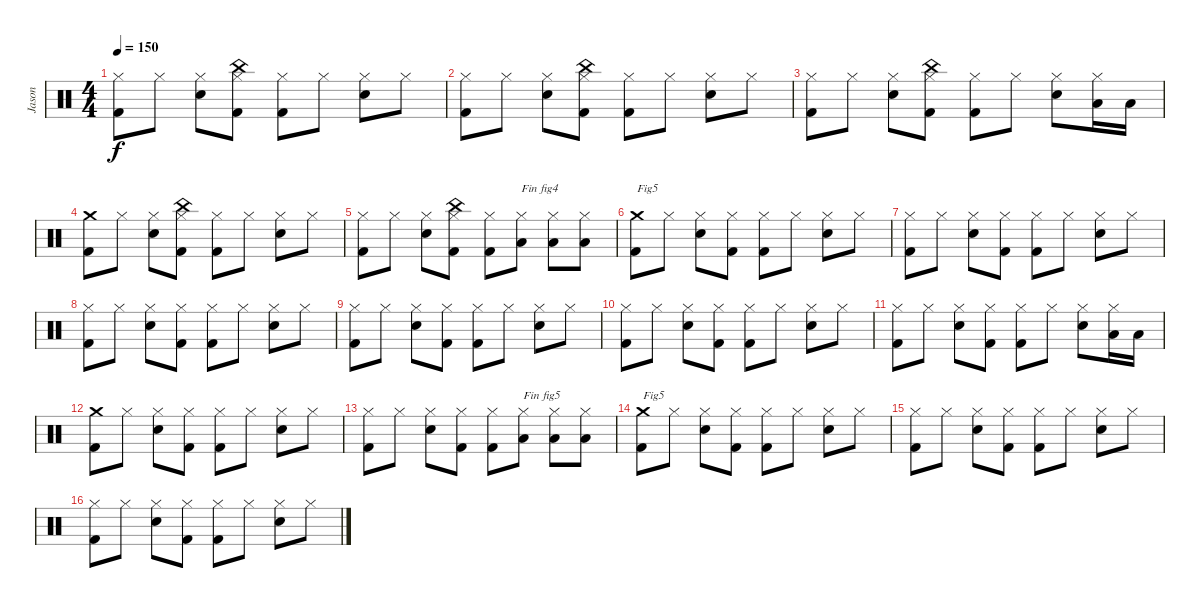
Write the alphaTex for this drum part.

\track ("Jason" "Jason") {instrument percussion}
\staff {score}
\articulation defaults
\ts (4 4)
\tempo 150
\clef neutral
\ks c
("Kick (hit) 2" "Hi-Hat (closed)").8{dy f} "Hi-Hat (closed)".8 ("Electric Snare (hit)" "Hi-Hat (closed)").8 ("Kick (hit) 2" "China (hit)" "Hi-Hat (closed)").8 ("Kick (hit) 2" "Hi-Hat (closed)").8 "Hi-Hat (closed)".8 ("Electric Snare (hit)" "Hi-Hat (closed)").8 "Hi-Hat (closed)".8 |
("Kick (hit) 2" "Hi-Hat (closed)").8 "Hi-Hat (closed)".8 ("Electric Snare (hit)" "Hi-Hat (closed)").8 ("Kick (hit) 2" "China (hit)" "Hi-Hat (closed)").8 ("Kick (hit) 2" "Hi-Hat (closed)").8 "Hi-Hat (closed)".8 ("Electric Snare (hit)" "Hi-Hat (closed)").8 "Hi-Hat (closed)".8 |
("Kick (hit) 2" "Hi-Hat (closed)").8 "Hi-Hat (closed)".8 ("Electric Snare (hit)" "Hi-Hat (closed)").8 ("Kick (hit) 2" "China (hit)" "Hi-Hat (closed)").8 ("Kick (hit) 2" "Hi-Hat (closed)").8 "Hi-Hat (closed)".8 ("Electric Snare (hit)" "Hi-Hat (closed)").8 ("Low Tom (hit)" "Hi-Hat (closed)").16 "Low Tom (hit)".16 |
("Kick (hit) 2" "Crash medium (hit)").8 "Hi-Hat (closed)".8 ("Electric Snare (hit)" "Hi-Hat (closed)").8 ("Kick (hit) 2" "China (hit)" "Hi-Hat (closed)").8 ("Kick (hit) 2" "Hi-Hat (closed)").8 "Hi-Hat (closed)".8 ("Electric Snare (hit)" "Hi-Hat (closed)").8 "Hi-Hat (closed)".8 |
("Kick (hit) 2" "Hi-Hat (closed)").8 "Hi-Hat (closed)".8 ("Electric Snare (hit)" "Hi-Hat (closed)").8 ("Kick (hit) 2" "China (hit)" "Hi-Hat (closed)").8 ("Kick (hit) 2" "Hi-Hat (closed)").8 ("Low Tom (hit)" "Hi-Hat (closed)").8{txt "Fin fig4"} ("Low Tom (hit)" "Hi-Hat (closed)").8 ("Low Tom (hit)" "Hi-Hat (closed)").8 |
("Kick (hit) 2" "Crash medium (hit)").8{txt "Fig5"} "Hi-Hat (closed)".8 ("Electric Snare (hit)" "Hi-Hat (closed)").8 ("Kick (hit) 2" "Hi-Hat (closed)").8 ("Kick (hit) 2" "Hi-Hat (closed)").8 "Hi-Hat (closed)".8 ("Electric Snare (hit)" "Hi-Hat (closed)").8 "Hi-Hat (closed)".8 |
("Kick (hit) 2" "Hi-Hat (closed)").8 "Hi-Hat (closed)".8 ("Electric Snare (hit)" "Hi-Hat (closed)").8 ("Kick (hit) 2" "Hi-Hat (closed)").8 ("Kick (hit) 2" "Hi-Hat (closed)").8 "Hi-Hat (closed)".8 ("Electric Snare (hit)" "Hi-Hat (closed)").8 "Hi-Hat (closed)".8 |
("Kick (hit) 2" "Hi-Hat (closed)").8 "Hi-Hat (closed)".8 ("Electric Snare (hit)" "Hi-Hat (closed)").8 ("Kick (hit) 2" "Hi-Hat (closed)").8 ("Kick (hit) 2" "Hi-Hat (closed)").8 "Hi-Hat (closed)".8 ("Electric Snare (hit)" "Hi-Hat (closed)").8 "Hi-Hat (closed)".8 |
("Kick (hit) 2" "Hi-Hat (closed)").8 "Hi-Hat (closed)".8 ("Electric Snare (hit)" "Hi-Hat (closed)").8 ("Kick (hit) 2" "Hi-Hat (closed)").8 ("Kick (hit) 2" "Hi-Hat (closed)").8 "Hi-Hat (closed)".8 ("Electric Snare (hit)" "Hi-Hat (closed)").8 "Hi-Hat (closed)".8 |
("Kick (hit) 2" "Hi-Hat (closed)").8 "Hi-Hat (closed)".8 ("Electric Snare (hit)" "Hi-Hat (closed)").8 ("Kick (hit) 2" "Hi-Hat (closed)").8 ("Kick (hit) 2" "Hi-Hat (closed)").8 "Hi-Hat (closed)".8 ("Electric Snare (hit)" "Hi-Hat (closed)").8 "Hi-Hat (closed)".8 |
("Kick (hit) 2" "Hi-Hat (closed)").8 "Hi-Hat (closed)".8 ("Electric Snare (hit)" "Hi-Hat (closed)").8 ("Kick (hit) 2" "Hi-Hat (closed)").8 ("Kick (hit) 2" "Hi-Hat (closed)").8 "Hi-Hat (closed)".8 ("Electric Snare (hit)" "Hi-Hat (closed)").8 ("Low Tom (hit)" "Hi-Hat (closed)").16 "Low Tom (hit)".16 |
("Kick (hit) 2" "Crash medium (hit)").8 "Hi-Hat (closed)".8 ("Electric Snare (hit)" "Hi-Hat (closed)").8 ("Kick (hit) 2" "Hi-Hat (closed)").8 ("Kick (hit) 2" "Hi-Hat (closed)").8 "Hi-Hat (closed)".8 ("Electric Snare (hit)" "Hi-Hat (closed)").8 "Hi-Hat (closed)".8 |
("Kick (hit) 2" "Hi-Hat (closed)").8 "Hi-Hat (closed)".8 ("Electric Snare (hit)" "Hi-Hat (closed)").8 ("Kick (hit) 2" "Hi-Hat (closed)").8 ("Kick (hit) 2" "Hi-Hat (closed)").8 ("Low Tom (hit)" "Hi-Hat (closed)").8{txt "Fin fig5"} ("Low Tom (hit)" "Hi-Hat (closed)").8 ("Low Tom (hit)" "Hi-Hat (closed)").8 |
("Kick (hit) 2" "Crash medium (hit)").8{txt "Fig5"} "Hi-Hat (closed)".8 ("Electric Snare (hit)" "Hi-Hat (closed)").8 ("Kick (hit) 2" "Hi-Hat (closed)").8 ("Kick (hit) 2" "Hi-Hat (closed)").8 "Hi-Hat (closed)".8 ("Electric Snare (hit)" "Hi-Hat (closed)").8 "Hi-Hat (closed)".8 |
("Kick (hit) 2" "Hi-Hat (closed)").8 "Hi-Hat (closed)".8 ("Electric Snare (hit)" "Hi-Hat (closed)").8 ("Kick (hit) 2" "Hi-Hat (closed)").8 ("Kick (hit) 2" "Hi-Hat (closed)").8 "Hi-Hat (closed)".8 ("Electric Snare (hit)" "Hi-Hat (closed)").8 "Hi-Hat (closed)".8 |
("Kick (hit) 2" "Hi-Hat (closed)").8 "Hi-Hat (closed)".8 ("Electric Snare (hit)" "Hi-Hat (closed)").8 ("Kick (hit) 2" "Hi-Hat (closed)").8 ("Kick (hit) 2" "Hi-Hat (closed)").8 "Hi-Hat (closed)".8 ("Electric Snare (hit)" "Hi-Hat (closed)").8 "Hi-Hat (closed)".8
